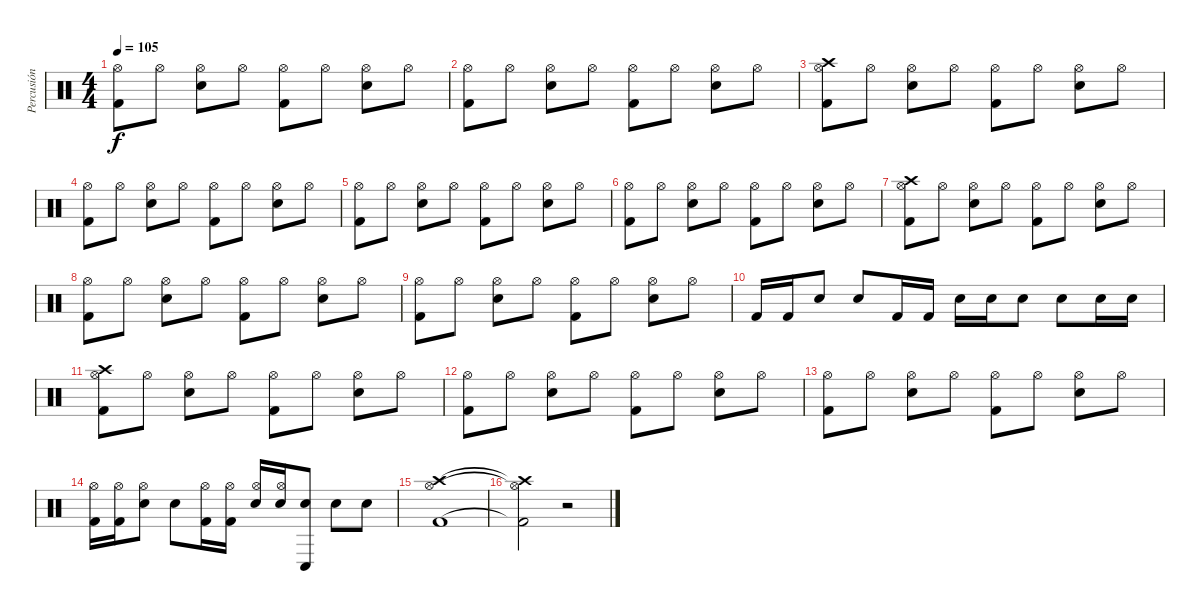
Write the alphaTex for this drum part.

\track ("Percusión" "Percusión") {instrument percussion}
\staff {score}
\articulation defaults
\ts (4 4)
\tempo 105
\clef neutral
\ks c
("Hi-Hat (open)" "Kick (hit) 2").8{dy f} "Hi-Hat (open)".8 ("Hi-Hat (open)" "Snare (hit) 2").8 "Hi-Hat (open)".8 ("Hi-Hat (open)" "Kick (hit) 2").8 "Hi-Hat (open)".8 ("Hi-Hat (open)" "Snare (hit) 2").8 "Hi-Hat (open)".8 |
("Hi-Hat (open)" "Kick (hit) 2").8 "Hi-Hat (open)".8 ("Hi-Hat (open)" "Snare (hit) 2").8 "Hi-Hat (open)".8 ("Hi-Hat (open)" "Kick (hit) 2").8 "Hi-Hat (open)".8 ("Hi-Hat (open)" "Snare (hit) 2").8 "Hi-Hat (open)".8 |
("Hi-Hat (open)" "Kick (hit) 2" "Crash high (hit)").8 "Hi-Hat (open)".8 ("Hi-Hat (open)" "Snare (hit) 2").8 "Hi-Hat (open)".8 ("Hi-Hat (open)" "Kick (hit) 2").8 "Hi-Hat (open)".8 ("Hi-Hat (open)" "Snare (hit) 2").8 "Hi-Hat (open)".8 |
("Hi-Hat (open)" "Kick (hit) 2").8 "Hi-Hat (open)".8 ("Hi-Hat (open)" "Snare (hit) 2").8 "Hi-Hat (open)".8 ("Hi-Hat (open)" "Kick (hit) 2").8 "Hi-Hat (open)".8 ("Hi-Hat (open)" "Snare (hit) 2").8 "Hi-Hat (open)".8 |
("Hi-Hat (open)" "Kick (hit) 2").8 "Hi-Hat (open)".8 ("Hi-Hat (open)" "Snare (hit) 2").8 "Hi-Hat (open)".8 ("Hi-Hat (open)" "Kick (hit) 2").8 "Hi-Hat (open)".8 ("Hi-Hat (open)" "Snare (hit) 2").8 "Hi-Hat (open)".8 |
("Hi-Hat (open)" "Kick (hit) 2").8 "Hi-Hat (open)".8 ("Hi-Hat (open)" "Snare (hit) 2").8 "Hi-Hat (open)".8 ("Hi-Hat (open)" "Kick (hit) 2").8 "Hi-Hat (open)".8 ("Hi-Hat (open)" "Snare (hit) 2").8 "Hi-Hat (open)".8 |
("Hi-Hat (open)" "Kick (hit) 2" "Crash high (hit)").8 "Hi-Hat (open)".8 ("Hi-Hat (open)" "Snare (hit) 2").8 "Hi-Hat (open)".8 ("Hi-Hat (open)" "Kick (hit) 2").8 "Hi-Hat (open)".8 ("Hi-Hat (open)" "Snare (hit) 2").8 "Hi-Hat (open)".8 |
("Hi-Hat (open)" "Kick (hit) 2").8 "Hi-Hat (open)".8 ("Hi-Hat (open)" "Snare (hit) 2").8 "Hi-Hat (open)".8 ("Hi-Hat (open)" "Kick (hit) 2").8 "Hi-Hat (open)".8 ("Hi-Hat (open)" "Snare (hit) 2").8 "Hi-Hat (open)".8 |
("Hi-Hat (open)" "Kick (hit) 2").8 "Hi-Hat (open)".8 ("Hi-Hat (open)" "Snare (hit) 2").8 "Hi-Hat (open)".8 ("Hi-Hat (open)" "Kick (hit) 2").8 "Hi-Hat (open)".8 ("Hi-Hat (open)" "Snare (hit) 2").8 "Hi-Hat (open)".8 |
"Kick (hit) 2".16 "Kick (hit) 2".16 "Snare (hit) 2".8 "Snare (hit) 2".8 "Kick (hit) 2".16 "Kick (hit) 2".16 "Snare (hit) 2".16 "Snare (hit) 2".16 "Snare (hit) 2".8 "Snare (hit) 2".8 "Snare (hit) 2".16 "Snare (hit) 2".16 |
("Hi-Hat (open)" "Kick (hit) 2" "Crash high (hit)").8 "Hi-Hat (open)".8 ("Hi-Hat (open)" "Snare (hit) 2").8 "Hi-Hat (open)".8 ("Hi-Hat (open)" "Kick (hit) 2").8 "Hi-Hat (open)".8 ("Hi-Hat (open)" "Snare (hit) 2").8 "Hi-Hat (open)".8 |
("Hi-Hat (open)" "Kick (hit) 2").8 "Hi-Hat (open)".8 ("Hi-Hat (open)" "Snare (hit) 2").8 "Hi-Hat (open)".8 ("Hi-Hat (open)" "Kick (hit) 2").8 "Hi-Hat (open)".8 ("Hi-Hat (open)" "Snare (hit) 2").8 "Hi-Hat (open)".8 |
("Hi-Hat (open)" "Kick (hit) 2").8 "Hi-Hat (open)".8 ("Hi-Hat (open)" "Snare (hit) 2").8 "Hi-Hat (open)".8 ("Hi-Hat (open)" "Kick (hit) 2").8 "Hi-Hat (open)".8 ("Hi-Hat (open)" "Snare (hit) 2").8 "Hi-Hat (open)".8 |
("Hi-Hat (open)" "Kick (hit) 2").16 ("Hi-Hat (open)" "Kick (hit) 2").16 ("Hi-Hat (open)" "Snare (hit) 2").8 "Snare (hit) 2".8 ("Hi-Hat (open)" "Kick (hit) 2").16 ("Hi-Hat (open)" "Kick (hit) 2").16 ("Hi-Hat (open)" "Snare (hit) 2").16 ("Hi-Hat (open)" "Snare (hit) 2").16 ("Conga low (hit)" "Snare (hit) 2").8 "Snare (hit) 2".8 "Snare (hit) 2".8 |
("Hi-Hat (open)" "Kick (hit) 2" "Crash high (hit)").1 |
("Hi-Hat (open)"{t} "Kick (hit) 2"{t} "Crash high (hit)"{t}).2 r.2
